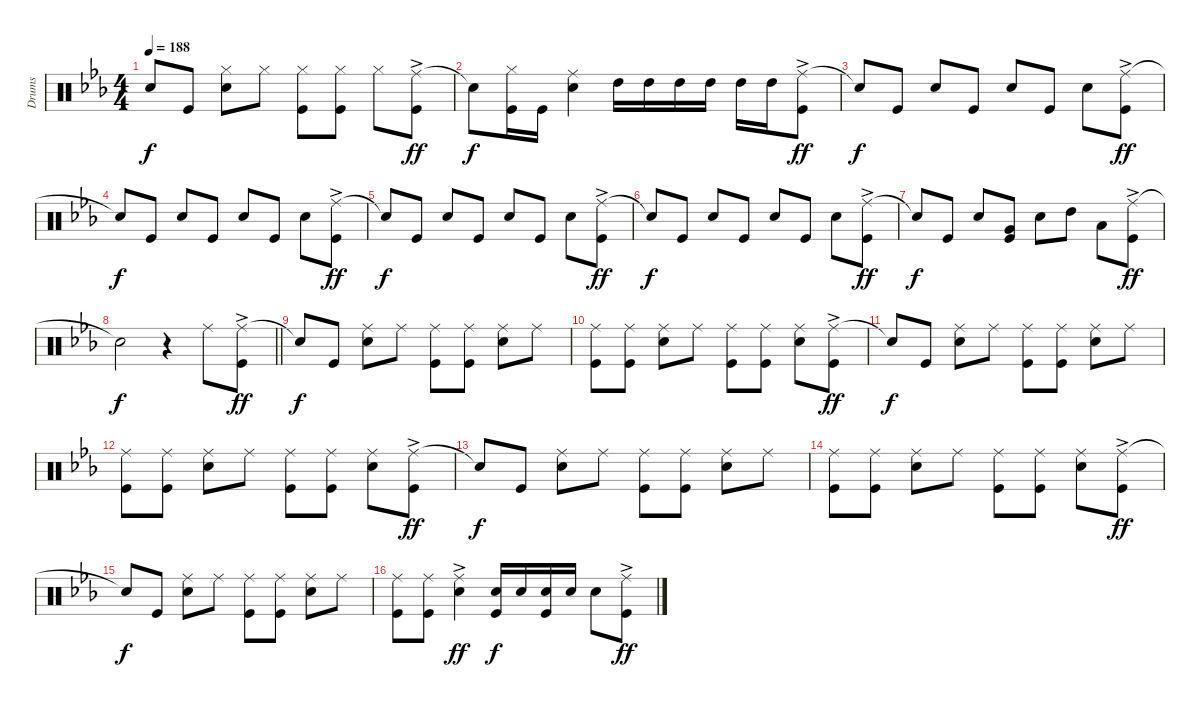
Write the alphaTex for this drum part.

\track ("Drums" "Drums") {instrument percussion}
\staff {score}
\articulation defaults
\ts (4 4)
\tempo 188
\clef neutral
\ks eb "Snare (hit)"{t}.8{dy f} "Kick (hit)".8
("Hi-Hat (closed)" "Snare (hit) 2").8 "Hi-Hat (closed)".8 ("Hi-Hat (closed)" "Kick (hit)").8 ("Hi-Hat (closed)" "Kick (hit)").8 "Hi-Hat (closed)".8 ("Ride (middle)"{ac} "Kick (hit)").8{dy ff} |
"Snare (hit)"{t}.8{dy f} ("Hi-Hat (closed)" "Kick (hit)").16 "Kick (hit)".16 ("Ride (middle)" "Snare (hit) 2").4 "High Tom (hit)".16 "High Tom (hit)".16 "High Tom (hit)".16 "High Tom (hit)".16 "High Tom (hit)".16 "High Tom (hit)".16 ("Ride (middle)"{ac} "Kick (hit)").8{dy ff} |
"Snare (hit)"{t}.8{dy f} "Kick (hit)".8 "Snare (hit) 2".8 "Kick (hit)".8 "Snare (hit) 2".8 "Kick (hit)".8 "Snare (hit) 2".8 ("Ride (middle)"{ac} "Kick (hit)").8{dy ff} |
"Snare (hit)"{t}.8{dy f} "Kick (hit)".8 "Snare (hit) 2".8 "Kick (hit)".8 "Snare (hit) 2".8 "Kick (hit)".8 "Snare (hit) 2".8 ("Ride (middle)"{ac} "Kick (hit)").8{dy ff} |
"Snare (hit)"{t}.8{dy f} "Kick (hit)".8 "Snare (hit) 2".8 "Kick (hit)".8 "Snare (hit) 2".8 "Kick (hit)".8 "Snare (hit) 2".8 ("Ride (middle)"{ac} "Kick (hit)").8{dy ff} |
"Snare (hit)"{t}.8{dy f} "Kick (hit)".8 "Snare (hit) 2".8 "Kick (hit)".8 "Snare (hit) 2".8 "Kick (hit)".8 "Snare (hit) 2".8 ("Ride (middle)"{ac} "Kick (hit)").8{dy ff} |
"Snare (hit)"{t}.8{dy f} "Kick (hit)".8 "Snare (hit) 2".8 ("Very Low Tom (hit)" "Kick (hit)").8 "Snare (hit) 2".8 "High Tom (hit)".8 "Low Tom (hit)".8 ("Ride (middle)"{ac} "Kick (hit)").8{dy ff} |
\barLineRight lightlight "Snare (hit)"{t}.2{dy f}
r.4 "Ride (middle)".8 ("Ride (middle)"{ac} "Kick (hit)").8{dy ff} |
"Snare (hit)"{t}.8{dy f} "Kick (hit)".8 ("Ride (middle)" "Snare (hit) 2").8 "Ride (middle)".8 ("Ride (middle)" "Kick (hit)").8 ("Ride (middle)" "Kick (hit)").8 ("Ride (middle)" "Snare (hit) 2").8 "Ride (middle)".8 |
("Ride (middle)" "Kick (hit)").8 ("Ride (middle)" "Kick (hit)").8 ("Ride (middle)" "Snare (hit) 2").8 "Ride (middle)".8 ("Ride (middle)" "Kick (hit)").8 ("Ride (middle)" "Kick (hit)").8 ("Ride (middle)" "Snare (hit) 2").8 ("Ride (middle)"{ac} "Kick (hit)").8{dy ff} |
"Snare (hit)"{t}.8{dy f} "Kick (hit)".8 ("Ride (middle)" "Snare (hit) 2").8 "Ride (middle)".8 ("Ride (middle)" "Kick (hit)").8 ("Ride (middle)" "Kick (hit)").8 ("Ride (middle)" "Snare (hit) 2").8 "Ride (middle)".8 |
("Ride (middle)" "Kick (hit)").8 ("Ride (middle)" "Kick (hit)").8 ("Ride (middle)" "Snare (hit) 2").8 "Ride (middle)".8 ("Ride (middle)" "Kick (hit)").8 ("Ride (middle)" "Kick (hit)").8 ("Ride (middle)" "Snare (hit) 2").8 ("Ride (middle)"{ac} "Kick (hit)").8{dy ff} |
"Snare (hit)"{t}.8{dy f} "Kick (hit)".8 ("Ride (middle)" "Snare (hit) 2").8 "Ride (middle)".8 ("Ride (middle)" "Kick (hit)").8 ("Ride (middle)" "Kick (hit)").8 ("Ride (middle)" "Snare (hit) 2").8 "Ride (middle)".8 |
("Ride (middle)" "Kick (hit)").8 ("Ride (middle)" "Kick (hit)").8 ("Ride (middle)" "Snare (hit) 2").8 "Ride (middle)".8 ("Ride (middle)" "Kick (hit)").8 ("Ride (middle)" "Kick (hit)").8 ("Ride (middle)" "Snare (hit) 2").8 ("Ride (middle)"{ac} "Kick (hit)").8{dy ff} |
"Snare (hit)"{t}.8{dy f} "Kick (hit)".8 ("Ride (middle)" "Snare (hit) 2").8 "Ride (middle)".8 ("Ride (middle)" "Kick (hit)").8 ("Ride (middle)" "Kick (hit)").8 ("Ride (middle)" "Snare (hit) 2").8 "Ride (middle)".8 |
("Ride (middle)" "Kick (hit)").8 ("Ride (middle)" "Kick (hit)").8 ("Ride (middle)"{ac} "Snare (hit) 2").4{dy ff} ("Snare (hit) 2" "Kick (hit)").16{dy f} "Snare (hit) 2".16 ("Snare (hit) 2" "Kick (hit)").16 "Snare (hit) 2".16 "Snare (hit) 2".8 ("Ride (middle)"{ac} "Kick (hit)").8{dy ff}
